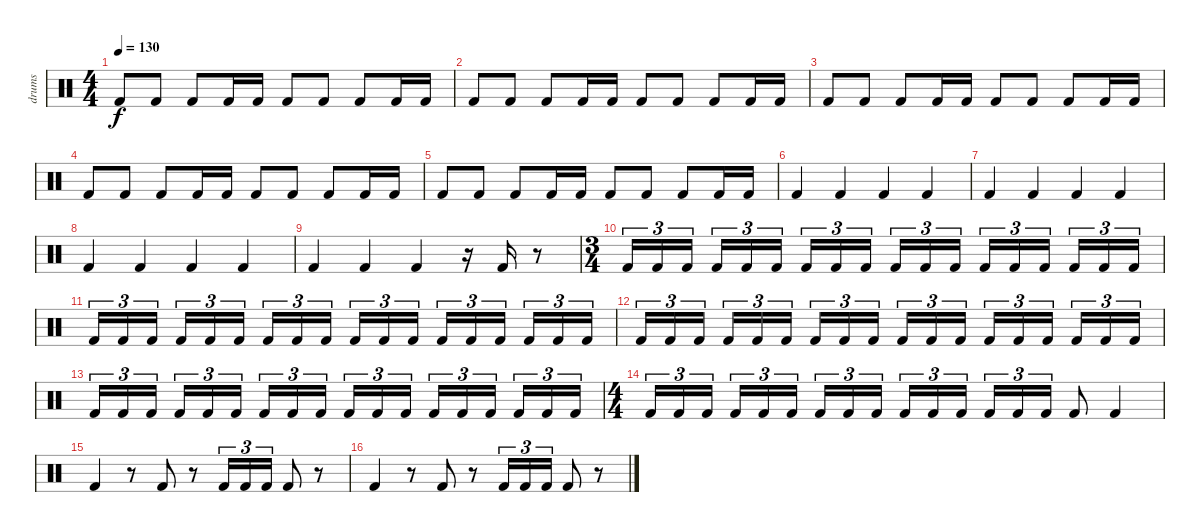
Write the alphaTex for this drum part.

\track ("drums" "drums") {instrument percussion}
\staff {score}
\articulation defaults
\ts (4 4)
\tempo 130
\clef neutral
\ks c "Kick (hit) 2".8{dy f} "Kick (hit) 2".8 "Kick (hit) 2".8 "Kick (hit) 2".16 "Kick (hit) 2".16 "Kick (hit) 2".8 "Kick (hit) 2".8 "Kick (hit) 2".8 "Kick (hit) 2".16 "Kick (hit) 2".16
|
"Kick (hit) 2".8 "Kick (hit) 2".8 "Kick (hit) 2".8 "Kick (hit) 2".16 "Kick (hit) 2".16 "Kick (hit) 2".8 "Kick (hit) 2".8 "Kick (hit) 2".8 "Kick (hit) 2".16 "Kick (hit) 2".16 |
"Kick (hit) 2".8 "Kick (hit) 2".8 "Kick (hit) 2".8 "Kick (hit) 2".16 "Kick (hit) 2".16 "Kick (hit) 2".8 "Kick (hit) 2".8 "Kick (hit) 2".8 "Kick (hit) 2".16 "Kick (hit) 2".16 |
"Kick (hit) 2".8 "Kick (hit) 2".8 "Kick (hit) 2".8 "Kick (hit) 2".16 "Kick (hit) 2".16 "Kick (hit) 2".8 "Kick (hit) 2".8 "Kick (hit) 2".8 "Kick (hit) 2".16 "Kick (hit) 2".16 |
"Kick (hit) 2".8 "Kick (hit) 2".8 "Kick (hit) 2".8 "Kick (hit) 2".16 "Kick (hit) 2".16 "Kick (hit) 2".8 "Kick (hit) 2".8 "Kick (hit) 2".8 "Kick (hit) 2".16 "Kick (hit) 2".16 |
"Kick (hit) 2".4 "Kick (hit) 2".4 "Kick (hit) 2".4 "Kick (hit) 2".4 |
"Kick (hit) 2".4 "Kick (hit) 2".4 "Kick (hit) 2".4 "Kick (hit) 2".4 |
"Kick (hit) 2".4 "Kick (hit) 2".4 "Kick (hit) 2".4 "Kick (hit) 2".4 |
"Kick (hit) 2".4 "Kick (hit) 2".4 "Kick (hit) 2".4 r.16 "Kick (hit) 2".16 r.8 |
\ts (3 4)
"Kick (hit) 2".16{tu (3 2)} "Kick (hit) 2".16{tu (3 2)} "Kick (hit) 2".16{tu (3 2)} "Kick (hit) 2".16{tu (3 2)} "Kick (hit) 2".16{tu (3 2)} "Kick (hit) 2".16{tu (3 2)} "Kick (hit) 2".16{tu (3 2)} "Kick (hit) 2".16{tu (3 2)} "Kick (hit) 2".16{tu (3 2)} "Kick (hit) 2".16{tu (3 2)} "Kick (hit) 2".16{tu (3 2)} "Kick (hit) 2".16{tu (3 2)} "Kick (hit) 2".16{tu (3 2)} "Kick (hit) 2".16{tu (3 2)} "Kick (hit) 2".16{tu (3 2)} "Kick (hit) 2".16{tu (3 2)} "Kick (hit) 2".16{tu (3 2)} "Kick (hit) 2".16{tu (3 2)} |
"Kick (hit) 2".16{tu (3 2)} "Kick (hit) 2".16{tu (3 2)} "Kick (hit) 2".16{tu (3 2)} "Kick (hit) 2".16{tu (3 2)} "Kick (hit) 2".16{tu (3 2)} "Kick (hit) 2".16{tu (3 2)} "Kick (hit) 2".16{tu (3 2)} "Kick (hit) 2".16{tu (3 2)} "Kick (hit) 2".16{tu (3 2)} "Kick (hit) 2".16{tu (3 2)} "Kick (hit) 2".16{tu (3 2)} "Kick (hit) 2".16{tu (3 2)} "Kick (hit) 2".16{tu (3 2)} "Kick (hit) 2".16{tu (3 2)} "Kick (hit) 2".16{tu (3 2)} "Kick (hit) 2".16{tu (3 2)} "Kick (hit) 2".16{tu (3 2)} "Kick (hit) 2".16{tu (3 2)} |
"Kick (hit) 2".16{tu (3 2)} "Kick (hit) 2".16{tu (3 2)} "Kick (hit) 2".16{tu (3 2)} "Kick (hit) 2".16{tu (3 2)} "Kick (hit) 2".16{tu (3 2)} "Kick (hit) 2".16{tu (3 2)} "Kick (hit) 2".16{tu (3 2)} "Kick (hit) 2".16{tu (3 2)} "Kick (hit) 2".16{tu (3 2)} "Kick (hit) 2".16{tu (3 2)} "Kick (hit) 2".16{tu (3 2)} "Kick (hit) 2".16{tu (3 2)} "Kick (hit) 2".16{tu (3 2)} "Kick (hit) 2".16{tu (3 2)} "Kick (hit) 2".16{tu (3 2)} "Kick (hit) 2".16{tu (3 2)} "Kick (hit) 2".16{tu (3 2)} "Kick (hit) 2".16{tu (3 2)} |
"Kick (hit) 2".16{tu (3 2)} "Kick (hit) 2".16{tu (3 2)} "Kick (hit) 2".16{tu (3 2)} "Kick (hit) 2".16{tu (3 2)} "Kick (hit) 2".16{tu (3 2)} "Kick (hit) 2".16{tu (3 2)} "Kick (hit) 2".16{tu (3 2)} "Kick (hit) 2".16{tu (3 2)} "Kick (hit) 2".16{tu (3 2)} "Kick (hit) 2".16{tu (3 2)} "Kick (hit) 2".16{tu (3 2)} "Kick (hit) 2".16{tu (3 2)} "Kick (hit) 2".16{tu (3 2)} "Kick (hit) 2".16{tu (3 2)} "Kick (hit) 2".16{tu (3 2)} "Kick (hit) 2".16{tu (3 2)} "Kick (hit) 2".16{tu (3 2)} "Kick (hit) 2".16{tu (3 2)} |
\ts (4 4)
"Kick (hit) 2".16{tu (3 2)} "Kick (hit) 2".16{tu (3 2)} "Kick (hit) 2".16{tu (3 2)} "Kick (hit) 2".16{tu (3 2)} "Kick (hit) 2".16{tu (3 2)} "Kick (hit) 2".16{tu (3 2)} "Kick (hit) 2".16{tu (3 2)} "Kick (hit) 2".16{tu (3 2)} "Kick (hit) 2".16{tu (3 2)} "Kick (hit) 2".16{tu (3 2)} "Kick (hit) 2".16{tu (3 2)} "Kick (hit) 2".16{tu (3 2)} "Kick (hit) 2".16{tu (3 2)} "Kick (hit) 2".16{tu (3 2)} "Kick (hit) 2".16{tu (3 2)} "Kick (hit) 2".8 "Kick (hit) 2".4 |
"Kick (hit) 2".4 r.8 "Kick (hit) 2".8 r.8 "Kick (hit) 2".16{tu (3 2)} "Kick (hit) 2".16{tu (3 2)} "Kick (hit) 2".16{tu (3 2)} "Kick (hit) 2".8 r.8 |
"Kick (hit) 2".4 r.8 "Kick (hit) 2".8 r.8 "Kick (hit) 2".16{tu (3 2)} "Kick (hit) 2".16{tu (3 2)} "Kick (hit) 2".16{tu (3 2)} "Kick (hit) 2".8 r.8
